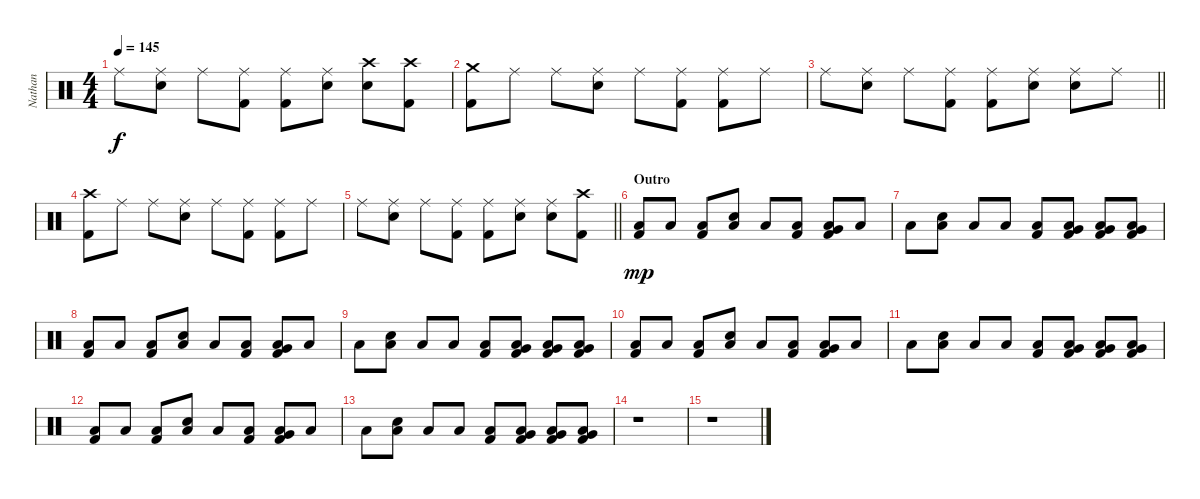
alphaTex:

\track ("Nathan" "Nathan") {instrument percussion}
\staff {score}
\articulation defaults
\ts (4 4)
\tempo 145
\clef neutral
\ks c "Ride (middle)".8{dy f}
("Ride (middle)" "Electric Snare (hit)").8 "Ride (middle)".8 ("Ride (middle)" "Kick (hit) 2").8 ("Ride (middle)" "Kick (hit) 2").8 ("Ride (middle)" "Electric Snare (hit)").8 ("Crash high (hit)" "Electric Snare (hit)").8 ("Crash high (hit)" "Kick (hit) 2").8 |
("Crash medium (hit)" "Kick (hit) 2").8 "Ride (middle)".8 "Ride (middle)".8 ("Ride (middle)" "Electric Snare (hit)").8 "Ride (middle)".8 ("Ride (middle)" "Kick (hit) 2").8 ("Ride (middle)" "Kick (hit) 2").8 "Ride (middle)".8 |
\barLineRight lightlight "Ride (middle)".8
("Ride (middle)" "Electric Snare (hit)").8 "Ride (middle)".8 ("Ride (middle)" "Kick (hit) 2").8 ("Ride (middle)" "Kick (hit) 2").8 ("Ride (middle)" "Electric Snare (hit)").8 ("Ride (middle)" "Electric Snare (hit)").8 "Ride (middle)".8 |
("Crash high (hit)" "Kick (hit) 2").8 "Ride (middle)".8 "Ride (middle)".8 ("Ride (middle)" "Electric Snare (hit)").8 "Ride (middle)".8 ("Ride (middle)" "Kick (hit) 2").8 ("Ride (middle)" "Kick (hit) 2").8 "Ride (middle)".8 |
\barLineRight lightlight "Ride (middle)".8
("Ride (middle)" "Electric Snare (hit)").8 "Ride (middle)".8 ("Ride (middle)" "Kick (hit) 2").8 ("Ride (middle)" "Kick (hit) 2").8 ("Ride (middle)" "Electric Snare (hit)").8 ("Ride (middle)" "Electric Snare (hit)").8 ("Crash high (hit)" "Kick (hit) 2").8 |
\section ("" "Outro")
("Low Floor Tom (hit)" "Kick (hit) 2").8{dy mp} "Low Floor Tom (hit)".8 ("Low Floor Tom (hit)" "Kick (hit) 2").8 ("Low Floor Tom (hit)" "Electric Snare (hit)").8 "Low Floor Tom (hit)".8 ("Low Floor Tom (hit)" "Kick (hit) 2").8 ("Low Floor Tom (hit)" "Very Low Tom (hit)" "Kick (hit) 2").8 "Low Floor Tom (hit)".8 |
"Low Floor Tom (hit)".8 ("Low Floor Tom (hit)" "Electric Snare (hit)").8 "Low Floor Tom (hit)".8 "Low Floor Tom (hit)".8 ("Low Floor Tom (hit)" "Kick (hit) 2").8 ("Low Floor Tom (hit)" "Very Low Tom (hit)" "Kick (hit) 2").8 ("Low Floor Tom (hit)" "Very Low Tom (hit)" "Kick (hit) 2").8 ("Low Floor Tom (hit)" "Very Low Tom (hit)" "Kick (hit) 2").8 |
("Low Floor Tom (hit)" "Kick (hit) 2").8 "Low Floor Tom (hit)".8 ("Low Floor Tom (hit)" "Kick (hit) 2").8 ("Low Floor Tom (hit)" "Electric Snare (hit)").8 "Low Floor Tom (hit)".8 ("Low Floor Tom (hit)" "Kick (hit) 2").8 ("Low Floor Tom (hit)" "Very Low Tom (hit)" "Kick (hit) 2").8 "Low Floor Tom (hit)".8 |
"Low Floor Tom (hit)".8 ("Low Floor Tom (hit)" "Electric Snare (hit)").8 "Low Floor Tom (hit)".8 "Low Floor Tom (hit)".8 ("Low Floor Tom (hit)" "Kick (hit) 2").8 ("Low Floor Tom (hit)" "Very Low Tom (hit)" "Kick (hit) 2").8 ("Low Floor Tom (hit)" "Very Low Tom (hit)" "Kick (hit) 2").8 ("Low Floor Tom (hit)" "Very Low Tom (hit)" "Kick (hit) 2").8 |
("Low Floor Tom (hit)" "Kick (hit) 2").8 "Low Floor Tom (hit)".8 ("Low Floor Tom (hit)" "Kick (hit) 2").8 ("Low Floor Tom (hit)" "Electric Snare (hit)").8 "Low Floor Tom (hit)".8 ("Low Floor Tom (hit)" "Kick (hit) 2").8 ("Low Floor Tom (hit)" "Very Low Tom (hit)" "Kick (hit) 2").8 "Low Floor Tom (hit)".8 |
"Low Floor Tom (hit)".8 ("Low Floor Tom (hit)" "Electric Snare (hit)").8 "Low Floor Tom (hit)".8 "Low Floor Tom (hit)".8 ("Low Floor Tom (hit)" "Kick (hit) 2").8 ("Low Floor Tom (hit)" "Very Low Tom (hit)" "Kick (hit) 2").8 ("Low Floor Tom (hit)" "Very Low Tom (hit)" "Kick (hit) 2").8 ("Low Floor Tom (hit)" "Very Low Tom (hit)" "Kick (hit) 2").8 |
("Low Floor Tom (hit)" "Kick (hit) 2").8 "Low Floor Tom (hit)".8 ("Low Floor Tom (hit)" "Kick (hit) 2").8 ("Low Floor Tom (hit)" "Electric Snare (hit)").8 "Low Floor Tom (hit)".8 ("Low Floor Tom (hit)" "Kick (hit) 2").8 ("Low Floor Tom (hit)" "Very Low Tom (hit)" "Kick (hit) 2").8 "Low Floor Tom (hit)".8 |
"Low Floor Tom (hit)".8 ("Low Floor Tom (hit)" "Electric Snare (hit)").8 "Low Floor Tom (hit)".8 "Low Floor Tom (hit)".8 ("Low Floor Tom (hit)" "Kick (hit) 2").8 ("Low Floor Tom (hit)" "Very Low Tom (hit)" "Kick (hit) 2").8 ("Low Floor Tom (hit)" "Very Low Tom (hit)" "Kick (hit) 2").8 ("Low Floor Tom (hit)" "Very Low Tom (hit)" "Kick (hit) 2").8 |
r.1 |
r.1
